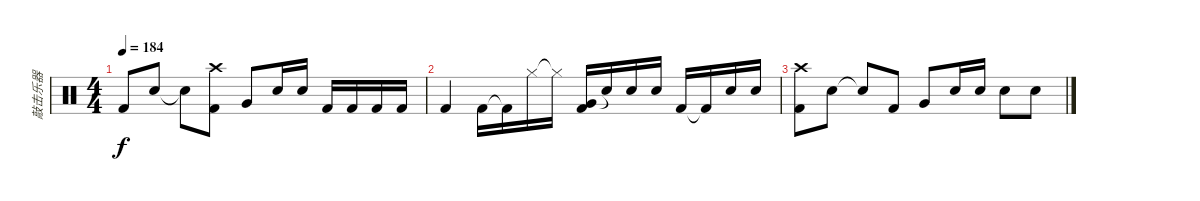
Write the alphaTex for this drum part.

\track ("敲击乐器" "敲击乐器") {instrument percussion}
\staff {score}
\articulation defaults
\ts (4 4)
\tempo 184
\clef neutral
\ks c "Kick (hit) 2".8{dy f} "Snare (hit) 2".8 "Snare (hit) 2"{t}.8
("Crash high (hit)" "Kick (hit) 2").8 "Very Low Tom (hit)".8 "Snare (hit) 2".16 "Snare (hit) 2".16 "Kick (hit) 2".16 "Kick (hit) 2".16 "Kick (hit) 2".16 "Kick (hit) 2".16 |
"Kick (hit) 2".4 "Kick (hit) 2".16 "Kick (hit) 2"{t}.16 "Hi-Hat (closed)".16 "Hi-Hat (closed)"{t}.16 ("Very Low Tom (hit)" "Kick (hit) 2").16 "Snare (hit) 2"{t}.16 "Snare (hit) 2".16 "Snare (hit) 2".16 "Kick (hit) 2".16 "Kick (hit) 2"{t}.16 "Snare (hit) 2".16 "Snare (hit) 2".16 |
("Crash high (hit)" "Kick (hit) 2").8 "Snare (hit) 2".8 "Snare (hit) 2"{t}.8 "Kick (hit) 2".8 "Very Low Tom (hit)".8 "Snare (hit) 2".16 "Snare (hit) 2".16 "Snare (hit) 2".8 "Snare (hit) 2".8
